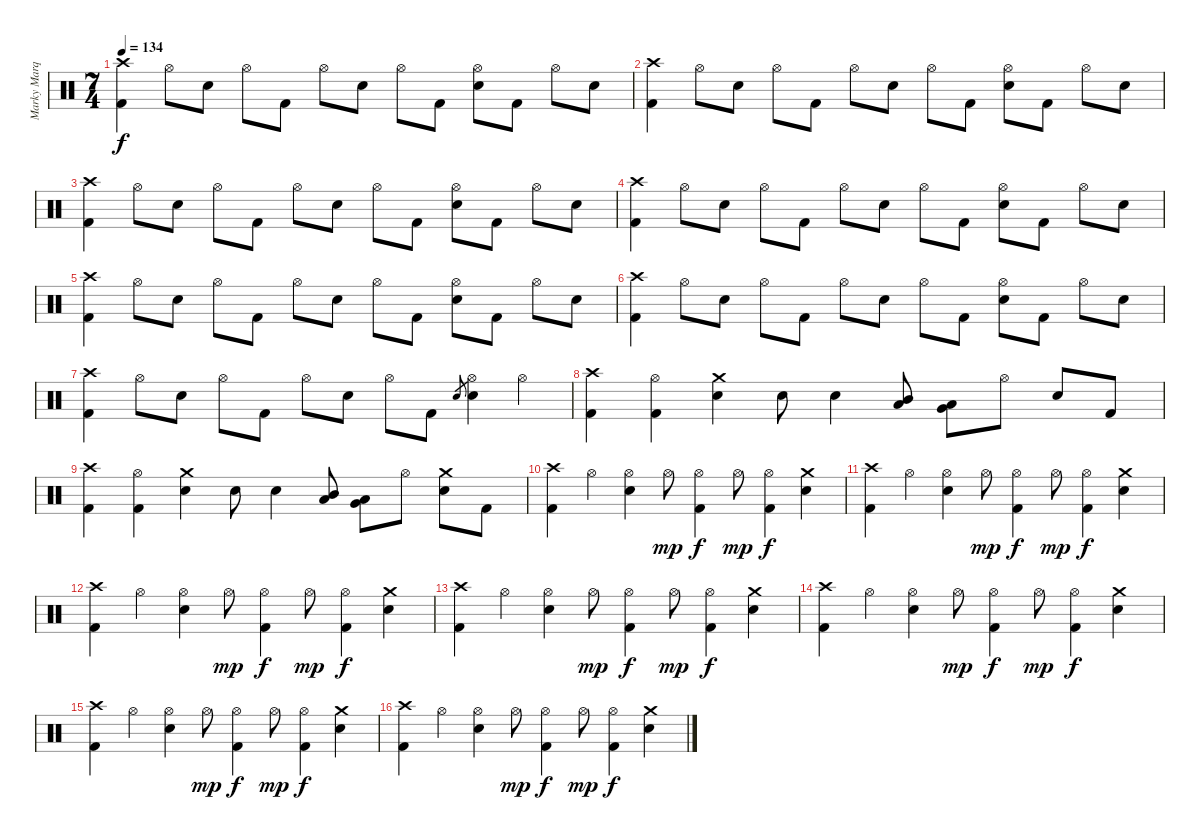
\track ("Marky Marquis" "Marky Marq") {instrument percussion}
\staff {score}
\articulation defaults
\ts (7 4)
\tempo 134
\clef neutral
\ks c
("Crash high (hit)" "Kick (hit) 2").4{dy f} "Hi-Hat (open)".8 "Electric Snare (hit)".8 "Hi-Hat (open)".8 "Kick (hit) 2".8 "Hi-Hat (open)".8 "Electric Snare (hit)".8 "Hi-Hat (open)".8 "Kick (hit) 2".8 ("Hi-Hat (open)" "Electric Snare (hit)").8 "Kick (hit) 2".8 "Hi-Hat (open)".8 "Electric Snare (hit)".8 |
("Crash high (hit)" "Kick (hit) 2").4 "Hi-Hat (open)".8 "Electric Snare (hit)".8 "Hi-Hat (open)".8 "Kick (hit) 2".8 "Hi-Hat (open)".8 "Electric Snare (hit)".8 "Hi-Hat (open)".8 "Kick (hit) 2".8 ("Hi-Hat (open)" "Electric Snare (hit)").8 "Kick (hit) 2".8 "Hi-Hat (open)".8 "Electric Snare (hit)".8 |
("Crash high (hit)" "Kick (hit) 2").4 "Hi-Hat (open)".8 "Electric Snare (hit)".8 "Hi-Hat (open)".8 "Kick (hit) 2".8 "Hi-Hat (open)".8 "Electric Snare (hit)".8 "Hi-Hat (open)".8 "Kick (hit) 2".8 ("Hi-Hat (open)" "Electric Snare (hit)").8 "Kick (hit) 2".8 "Hi-Hat (open)".8 "Electric Snare (hit)".8 |
("Crash high (hit)" "Kick (hit) 2").4 "Hi-Hat (open)".8 "Electric Snare (hit)".8 "Hi-Hat (open)".8 "Kick (hit) 2".8 "Hi-Hat (open)".8 "Electric Snare (hit)".8 "Hi-Hat (open)".8 "Kick (hit) 2".8 ("Hi-Hat (open)" "Electric Snare (hit)").8 "Kick (hit) 2".8 "Hi-Hat (open)".8 "Electric Snare (hit)".8 |
("Crash high (hit)" "Kick (hit) 2").4 "Hi-Hat (open)".8 "Electric Snare (hit)".8 "Hi-Hat (open)".8 "Kick (hit) 2".8 "Hi-Hat (open)".8 "Electric Snare (hit)".8 "Hi-Hat (open)".8 "Kick (hit) 2".8 ("Hi-Hat (open)" "Electric Snare (hit)").8 "Kick (hit) 2".8 "Hi-Hat (open)".8 "Electric Snare (hit)".8 |
("Crash high (hit)" "Kick (hit) 2").4 "Hi-Hat (open)".8 "Electric Snare (hit)".8 "Hi-Hat (open)".8 "Kick (hit) 2".8 "Hi-Hat (open)".8 "Electric Snare (hit)".8 "Hi-Hat (open)".8 "Kick (hit) 2".8 ("Hi-Hat (open)" "Electric Snare (hit)").8 "Kick (hit) 2".8 "Hi-Hat (open)".8 "Electric Snare (hit)".8 |
("Crash high (hit)" "Kick (hit) 2").4 "Hi-Hat (open)".8 "Electric Snare (hit)".8 "Hi-Hat (open)".8 "Kick (hit) 2".8 "Hi-Hat (open)".8 "Electric Snare (hit)".8 "Hi-Hat (open)".8 "Kick (hit) 2".8 "Electric Snare (hit)".8{gr} ("Hi-Hat (open)" "Electric Snare (hit)").4 "Hi-Hat (open)".4 |
("Crash high (hit)" "Kick (hit) 2").4 ("Hi-Hat (open)" "Kick (hit) 2").4 ("Crash medium (hit)" "Electric Snare (hit)").4 "Electric Snare (hit)".8 "Electric Snare (hit)".4 ("Mid Tom (hit)" "Low Tom (hit)").8 ("Low Tom (hit)" "Very Low Tom (hit)").8 "Hi-Hat (open)".8 "Electric Snare (hit)".8 "Kick (hit) 2".8 |
("Crash high (hit)" "Kick (hit) 2").4 ("Hi-Hat (open)" "Kick (hit) 2").4 ("Crash medium (hit)" "Electric Snare (hit)").4 "Electric Snare (hit)".8 "Electric Snare (hit)".4 ("Mid Tom (hit)" "Low Tom (hit)").8 ("Low Tom (hit)" "Very Low Tom (hit)").8 "Hi-Hat (open)".8 ("Crash medium (hit)" "Electric Snare (hit)").8 "Kick (hit) 2".8 |
("Crash high (hit)" "Kick (hit) 2").4 "Hi-Hat (open)".4 ("Hi-Hat (open)" "Electric Snare (hit)").4 "Hi-Hat (open)".8{dy mp} ("Hi-Hat (open)" "Kick (hit) 2").4{dy f} "Hi-Hat (open)".8{dy mp} ("Hi-Hat (open)" "Kick (hit) 2").4{dy f} ("Crash medium (hit)" "Electric Snare (hit)").4 |
("Crash high (hit)" "Kick (hit) 2").4 "Hi-Hat (open)".4 ("Hi-Hat (open)" "Electric Snare (hit)").4 "Hi-Hat (open)".8{dy mp} ("Hi-Hat (open)" "Kick (hit) 2").4{dy f} "Hi-Hat (open)".8{dy mp} ("Hi-Hat (open)" "Kick (hit) 2").4{dy f} ("Crash medium (hit)" "Electric Snare (hit)").4 |
("Crash high (hit)" "Kick (hit) 2").4 "Hi-Hat (open)".4 ("Hi-Hat (open)" "Electric Snare (hit)").4 "Hi-Hat (open)".8{dy mp} ("Hi-Hat (open)" "Kick (hit) 2").4{dy f} "Hi-Hat (open)".8{dy mp} ("Hi-Hat (open)" "Kick (hit) 2").4{dy f} ("Crash medium (hit)" "Electric Snare (hit)").4 |
("Crash high (hit)" "Kick (hit) 2").4 "Hi-Hat (open)".4 ("Hi-Hat (open)" "Electric Snare (hit)").4 "Hi-Hat (open)".8{dy mp} ("Hi-Hat (open)" "Kick (hit) 2").4{dy f} "Hi-Hat (open)".8{dy mp} ("Hi-Hat (open)" "Kick (hit) 2").4{dy f} ("Crash medium (hit)" "Electric Snare (hit)").4 |
("Crash high (hit)" "Kick (hit) 2").4 "Hi-Hat (open)".4 ("Hi-Hat (open)" "Electric Snare (hit)").4 "Hi-Hat (open)".8{dy mp} ("Hi-Hat (open)" "Kick (hit) 2").4{dy f} "Hi-Hat (open)".8{dy mp} ("Hi-Hat (open)" "Kick (hit) 2").4{dy f} ("Crash medium (hit)" "Electric Snare (hit)").4 |
("Crash high (hit)" "Kick (hit) 2").4 "Hi-Hat (open)".4 ("Hi-Hat (open)" "Electric Snare (hit)").4 "Hi-Hat (open)".8{dy mp} ("Hi-Hat (open)" "Kick (hit) 2").4{dy f} "Hi-Hat (open)".8{dy mp} ("Hi-Hat (open)" "Kick (hit) 2").4{dy f} ("Crash medium (hit)" "Electric Snare (hit)").4 |
("Crash high (hit)" "Kick (hit) 2").4 "Hi-Hat (open)".4 ("Hi-Hat (open)" "Electric Snare (hit)").4 "Hi-Hat (open)".8{dy mp} ("Hi-Hat (open)" "Kick (hit) 2").4{dy f} "Hi-Hat (open)".8{dy mp} ("Hi-Hat (open)" "Kick (hit) 2").4{dy f} ("Crash medium (hit)" "Electric Snare (hit)").4
